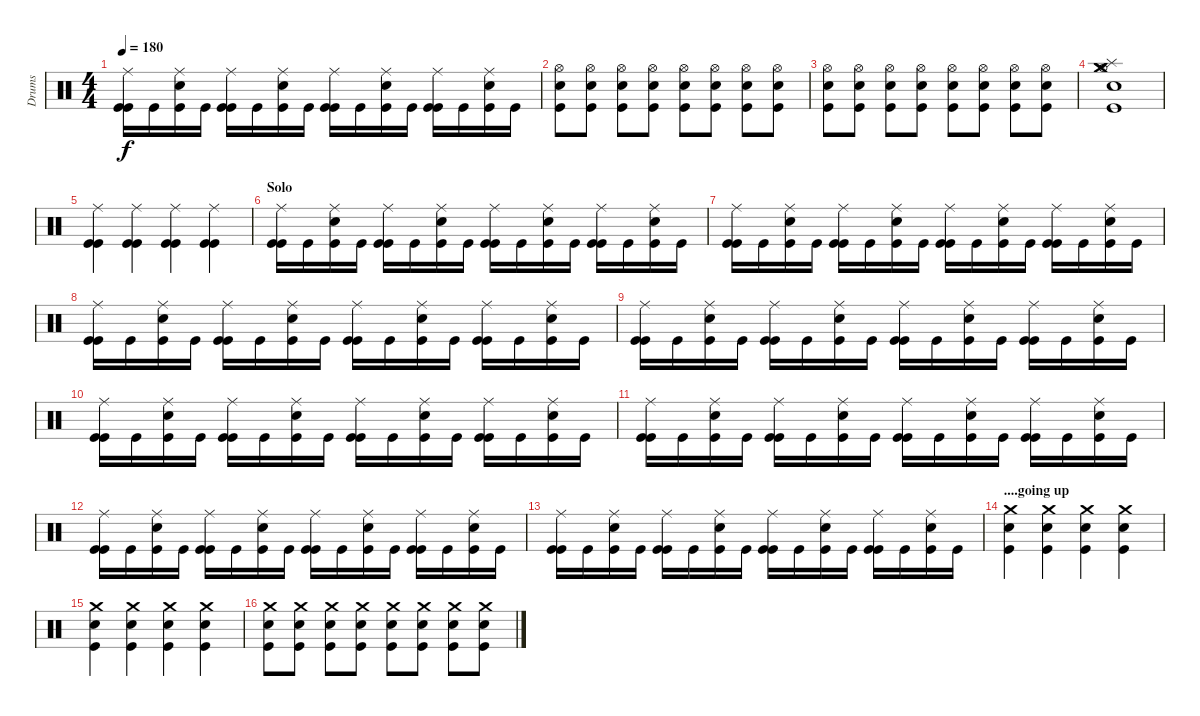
\track ("Drums" "Drums") {instrument percussion}
\staff {score}
\articulation defaults
\ts (4 4)
\tempo 180
\clef neutral
\ks c
("Ride (middle)" "Kick (hit)" "Kick (hit)").16{dy f} "Kick (hit)".16 ("Ride (middle)" "Electric Snare (hit)" "Kick (hit)").16 "Kick (hit)".16 ("Ride (middle)" "Kick (hit)" "Kick (hit)").16 "Kick (hit)".16 ("Ride (middle)" "Electric Snare (hit)" "Kick (hit)").16 "Kick (hit)".16 ("Ride (middle)" "Kick (hit)" "Kick (hit)").16 "Kick (hit)".16 ("Ride (middle)" "Electric Snare (hit)" "Kick (hit)").16 "Kick (hit)".16 ("Ride (middle)" "Kick (hit)" "Kick (hit)").16 "Kick (hit)".16 ("Ride (middle)" "Electric Snare (hit)" "Kick (hit)").16 "Kick (hit)".16 |
("Hi-Hat (open)" "Electric Snare (hit)" "Kick (hit)").8 ("Hi-Hat (open)" "Electric Snare (hit)" "Kick (hit)").8 ("Hi-Hat (open)" "Electric Snare (hit)" "Kick (hit)").8 ("Hi-Hat (open)" "Electric Snare (hit)" "Kick (hit)").8 ("Hi-Hat (open)" "Electric Snare (hit)" "Kick (hit)").8 ("Hi-Hat (open)" "Electric Snare (hit)" "Kick (hit)").8 ("Hi-Hat (open)" "Electric Snare (hit)" "Kick (hit)").8 ("Hi-Hat (open)" "Electric Snare (hit)" "Kick (hit)").8 |
("Hi-Hat (open)" "Electric Snare (hit)" "Kick (hit)").8 ("Hi-Hat (open)" "Electric Snare (hit)" "Kick (hit)").8 ("Hi-Hat (open)" "Electric Snare (hit)" "Kick (hit)").8 ("Hi-Hat (open)" "Electric Snare (hit)" "Kick (hit)").8 ("Hi-Hat (open)" "Electric Snare (hit)" "Kick (hit)").8 ("Hi-Hat (open)" "Electric Snare (hit)" "Kick (hit)").8 ("Hi-Hat (open)" "Electric Snare (hit)" "Kick (hit)").8 ("Hi-Hat (open)" "Electric Snare (hit)" "Kick (hit)").8 |
("Splash (hit)" "Hi-Hat (open)" "Crash medium (hit)" "Crash medium (hit)" "Electric Snare (hit)" "Kick (hit)").1 |
("Ride (middle)" "Kick (hit)" "Kick (hit)").4{volume 12} ("Ride (middle)" "Kick (hit)" "Kick (hit)").4 ("Ride (middle)" "Kick (hit)" "Kick (hit)").4 ("Ride (middle)" "Kick (hit)" "Kick (hit)").4 |
\section ("" "Solo")
("Ride (middle)" "Kick (hit)" "Kick (hit)").16 "Kick (hit)".16 ("Ride (middle)" "Electric Snare (hit)" "Kick (hit)").16 "Kick (hit)".16 ("Ride (middle)" "Kick (hit)" "Kick (hit)").16 "Kick (hit)".16 ("Ride (middle)" "Electric Snare (hit)" "Kick (hit)").16 "Kick (hit)".16 ("Ride (middle)" "Kick (hit)" "Kick (hit)").16 "Kick (hit)".16 ("Ride (middle)" "Electric Snare (hit)" "Kick (hit)").16 "Kick (hit)".16 ("Ride (middle)" "Kick (hit)" "Kick (hit)").16 "Kick (hit)".16 ("Ride (middle)" "Electric Snare (hit)" "Kick (hit)").16 "Kick (hit)".16 |
("Ride (middle)" "Kick (hit)" "Kick (hit)").16 "Kick (hit)".16 ("Ride (middle)" "Electric Snare (hit)" "Kick (hit)").16 "Kick (hit)".16 ("Ride (middle)" "Kick (hit)" "Kick (hit)").16 "Kick (hit)".16 ("Ride (middle)" "Electric Snare (hit)" "Kick (hit)").16 "Kick (hit)".16 ("Ride (middle)" "Kick (hit)" "Kick (hit)").16 "Kick (hit)".16 ("Ride (middle)" "Electric Snare (hit)" "Kick (hit)").16 "Kick (hit)".16 ("Ride (middle)" "Kick (hit)" "Kick (hit)").16 "Kick (hit)".16 ("Ride (middle)" "Electric Snare (hit)" "Kick (hit)").16 "Kick (hit)".16 |
("Ride (middle)" "Kick (hit)" "Kick (hit)").16 "Kick (hit)".16 ("Ride (middle)" "Electric Snare (hit)" "Kick (hit)").16 "Kick (hit)".16 ("Ride (middle)" "Kick (hit)" "Kick (hit)").16 "Kick (hit)".16 ("Ride (middle)" "Electric Snare (hit)" "Kick (hit)").16 "Kick (hit)".16 ("Ride (middle)" "Kick (hit)" "Kick (hit)").16 "Kick (hit)".16 ("Ride (middle)" "Electric Snare (hit)" "Kick (hit)").16 "Kick (hit)".16 ("Ride (middle)" "Kick (hit)" "Kick (hit)").16 "Kick (hit)".16 ("Ride (middle)" "Electric Snare (hit)" "Kick (hit)").16 "Kick (hit)".16 |
("Ride (middle)" "Kick (hit)" "Kick (hit)").16 "Kick (hit)".16 ("Ride (middle)" "Electric Snare (hit)" "Kick (hit)").16 "Kick (hit)".16 ("Ride (middle)" "Kick (hit)" "Kick (hit)").16 "Kick (hit)".16 ("Ride (middle)" "Electric Snare (hit)" "Kick (hit)").16 "Kick (hit)".16 ("Ride (middle)" "Kick (hit)" "Kick (hit)").16 "Kick (hit)".16 ("Ride (middle)" "Electric Snare (hit)" "Kick (hit)").16 "Kick (hit)".16 ("Ride (middle)" "Kick (hit)" "Kick (hit)").16 "Kick (hit)".16 ("Ride (middle)" "Electric Snare (hit)" "Kick (hit)").16 "Kick (hit)".16 |
("Ride (middle)" "Kick (hit)" "Kick (hit)").16 "Kick (hit)".16 ("Ride (middle)" "Electric Snare (hit)" "Kick (hit)").16 "Kick (hit)".16 ("Ride (middle)" "Kick (hit)" "Kick (hit)").16 "Kick (hit)".16 ("Ride (middle)" "Electric Snare (hit)" "Kick (hit)").16 "Kick (hit)".16 ("Ride (middle)" "Kick (hit)" "Kick (hit)").16 "Kick (hit)".16 ("Ride (middle)" "Electric Snare (hit)" "Kick (hit)").16 "Kick (hit)".16 ("Ride (middle)" "Kick (hit)" "Kick (hit)").16 "Kick (hit)".16 ("Ride (middle)" "Electric Snare (hit)" "Kick (hit)").16 "Kick (hit)".16 |
("Ride (middle)" "Kick (hit)" "Kick (hit)").16 "Kick (hit)".16 ("Ride (middle)" "Electric Snare (hit)" "Kick (hit)").16 "Kick (hit)".16 ("Ride (middle)" "Kick (hit)" "Kick (hit)").16 "Kick (hit)".16 ("Ride (middle)" "Electric Snare (hit)" "Kick (hit)").16 "Kick (hit)".16 ("Ride (middle)" "Kick (hit)" "Kick (hit)").16 "Kick (hit)".16 ("Ride (middle)" "Electric Snare (hit)" "Kick (hit)").16 "Kick (hit)".16 ("Ride (middle)" "Kick (hit)" "Kick (hit)").16 "Kick (hit)".16 ("Ride (middle)" "Electric Snare (hit)" "Kick (hit)").16 "Kick (hit)".16 |
("Ride (middle)" "Kick (hit)" "Kick (hit)").16 "Kick (hit)".16 ("Ride (middle)" "Electric Snare (hit)" "Kick (hit)").16 "Kick (hit)".16 ("Ride (middle)" "Kick (hit)" "Kick (hit)").16 "Kick (hit)".16 ("Ride (middle)" "Electric Snare (hit)" "Kick (hit)").16 "Kick (hit)".16 ("Ride (middle)" "Kick (hit)" "Kick (hit)").16 "Kick (hit)".16 ("Ride (middle)" "Electric Snare (hit)" "Kick (hit)").16 "Kick (hit)".16 ("Ride (middle)" "Kick (hit)" "Kick (hit)").16 "Kick (hit)".16 ("Ride (middle)" "Electric Snare (hit)" "Kick (hit)").16 "Kick (hit)".16 |
("Ride (middle)" "Kick (hit)" "Kick (hit)").16 "Kick (hit)".16 ("Ride (middle)" "Electric Snare (hit)" "Kick (hit)").16 "Kick (hit)".16 ("Ride (middle)" "Kick (hit)" "Kick (hit)").16 "Kick (hit)".16 ("Ride (middle)" "Electric Snare (hit)" "Kick (hit)").16 "Kick (hit)".16 ("Ride (middle)" "Kick (hit)" "Kick (hit)").16 "Kick (hit)".16 ("Ride (middle)" "Electric Snare (hit)" "Kick (hit)").16 "Kick (hit)".16 ("Ride (middle)" "Kick (hit)" "Kick (hit)").16 "Kick (hit)".16 ("Ride (middle)" "Electric Snare (hit)" "Kick (hit)").16 "Kick (hit)".16 |
\section ("" "....going up")
("Crash medium (hit)" "Electric Snare (hit)" "Kick (hit)").4 ("Crash medium (hit)" "Electric Snare (hit)" "Kick (hit)").4 ("Crash medium (hit)" "Electric Snare (hit)" "Kick (hit)").4 ("Crash medium (hit)" "Electric Snare (hit)" "Kick (hit)").4 |
("Crash medium (hit)" "Electric Snare (hit)" "Kick (hit)").4 ("Crash medium (hit)" "Electric Snare (hit)" "Kick (hit)").4 ("Crash medium (hit)" "Electric Snare (hit)" "Kick (hit)").4 ("Crash medium (hit)" "Electric Snare (hit)" "Kick (hit)").4 |
("Crash medium (hit)" "Electric Snare (hit)" "Kick (hit)").8 ("Crash medium (hit)" "Electric Snare (hit)" "Kick (hit)").8 ("Crash medium (hit)" "Electric Snare (hit)" "Kick (hit)").8 ("Crash medium (hit)" "Electric Snare (hit)" "Kick (hit)").8 ("Crash medium (hit)" "Electric Snare (hit)" "Kick (hit)").8 ("Crash medium (hit)" "Electric Snare (hit)" "Kick (hit)").8 ("Crash medium (hit)" "Electric Snare (hit)" "Kick (hit)").8 ("Crash medium (hit)" "Electric Snare (hit)" "Kick (hit)").8
